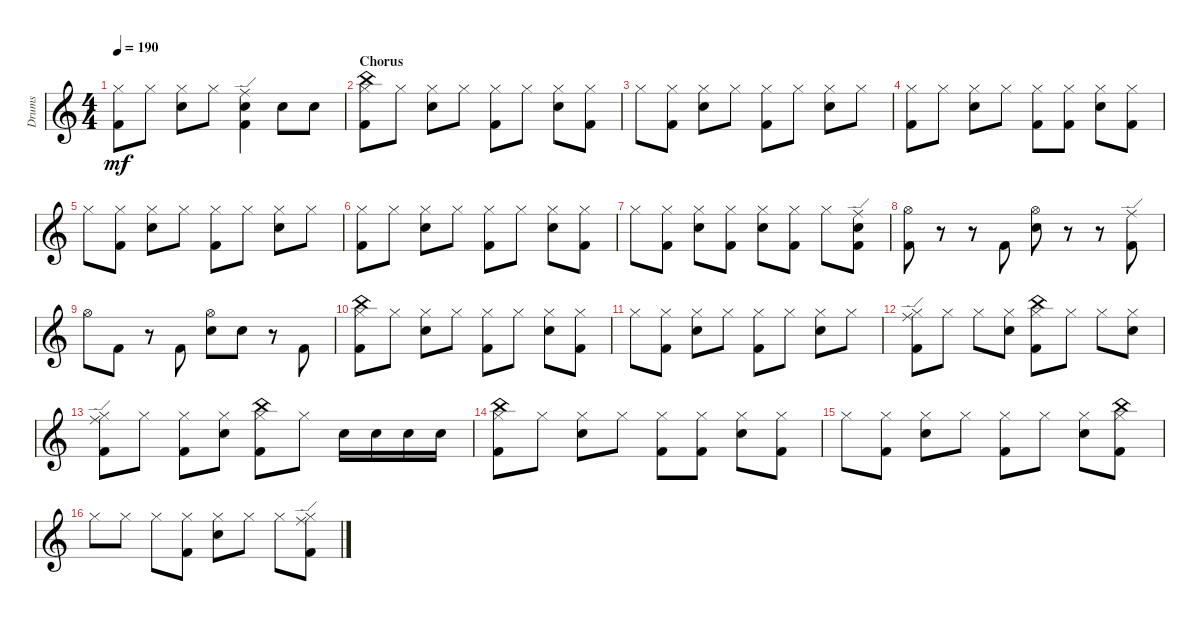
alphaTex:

\defaultSystemsLayout 4
\bracketExtendMode groupsimilarinstruments
\otherSystemsTrackNameOrientation horizontal
\track ("Prakarsh" "Drums") {instrument percussion}
\staff {score}
\articulation defaults
\ts (4 4)
\tempo 190
\clef g2
\ks c
("Hi-Hat (closed)" "Kick (hit) 2").8{dy mf beam Down} "Hi-Hat (closed)".8{beam Down} ("Hi-Hat (closed)" "Snare (hit) 2").8{beam Down} "Hi-Hat (closed)".8{beam Down} ("Kick (hit) 2" "Ride (edge)" "Snare (hit) 2").4{beam Down} "Snare (hit) 2".8{beam Down} "Snare (hit) 2".8{beam Down} |
\section ("" "Chorus")
("Hi-Hat (closed)" "Kick (hit) 2" "China (hit)").8{beam Down} "Hi-Hat (closed)".8{beam Down} ("Hi-Hat (closed)" "Snare (hit) 2").8{beam Down} "Hi-Hat (closed)".8{beam Down} ("Hi-Hat (closed)" "Kick (hit) 2").8{beam Down} "Hi-Hat (closed)".8{beam Down} ("Hi-Hat (closed)" "Snare (hit) 2").8{beam Down} ("Hi-Hat (closed)" "Kick (hit) 2").8{beam Down} |
"Hi-Hat (closed)".8{beam Down} ("Hi-Hat (closed)" "Kick (hit) 2").8{beam Down} ("Hi-Hat (closed)" "Snare (hit) 2").8{beam Down} "Hi-Hat (closed)".8{beam Down} ("Hi-Hat (closed)" "Kick (hit) 2").8{beam Down} "Hi-Hat (closed)".8{beam Down} ("Hi-Hat (closed)" "Snare (hit) 2").8{beam Down} "Hi-Hat (closed)".8{beam Down} |
("Hi-Hat (closed)" "Kick (hit) 2").8{beam Down} "Hi-Hat (closed)".8{beam Down} ("Hi-Hat (closed)" "Snare (hit) 2").8{beam Down} "Hi-Hat (closed)".8{beam Down} ("Hi-Hat (closed)" "Kick (hit) 2").8{beam Down} ("Hi-Hat (closed)" "Kick (hit) 2").8{beam Down} ("Hi-Hat (closed)" "Snare (hit) 2").8{beam Down} ("Hi-Hat (closed)" "Kick (hit) 2").8{beam Down} |
"Hi-Hat (closed)".8{beam Down} ("Hi-Hat (closed)" "Kick (hit) 2").8{beam Down} ("Hi-Hat (closed)" "Snare (hit) 2").8{beam Down} "Hi-Hat (closed)".8{beam Down} ("Hi-Hat (closed)" "Kick (hit) 2").8{beam Down} "Hi-Hat (closed)".8{beam Down} ("Hi-Hat (closed)" "Snare (hit) 2").8{beam Down} "Hi-Hat (closed)".8{beam Down} |
("Hi-Hat (closed)" "Kick (hit) 2").8{beam Down} "Hi-Hat (closed)".8{beam Down} ("Hi-Hat (closed)" "Snare (hit) 2").8{beam Down} "Hi-Hat (closed)".8{beam Down} ("Hi-Hat (closed)" "Kick (hit) 2").8{beam Down} "Hi-Hat (closed)".8{beam Down} ("Hi-Hat (closed)" "Snare (hit) 2").8{beam Down} ("Hi-Hat (closed)" "Kick (hit) 2").8{beam Down} |
"Hi-Hat (closed)".8{beam Down} ("Hi-Hat (closed)" "Kick (hit) 2").8{beam Down} ("Hi-Hat (closed)" "Snare (hit) 2").8{beam Down} ("Hi-Hat (closed)" "Kick (hit) 2").8{beam Down} ("Hi-Hat (closed)" "Snare (hit) 2").8{beam Down} ("Hi-Hat (closed)" "Kick (hit) 2").8{beam Down} "Hi-Hat (closed)".8{beam Down} ("Kick (hit) 2" "Snare (hit) 2" "Ride (edge)").8{beam Down} |
("Hi-Hat (open)" "Kick (hit) 2").8{beam Down} r.8{beam Down} r.8{beam Down} "Kick (hit) 2".8{beam Up} ("Hi-Hat (open)" "Snare (hit) 2").8{beam Down} r.8{beam Down} r.8{beam Down} ("Kick (hit) 2" "Ride (edge)").8{beam Down} |
"Hi-Hat (open)".8{beam Down} "Kick (hit) 2".8{beam Down} r.8{beam Down} "Kick (hit) 2".8{beam Up} ("Hi-Hat (open)" "Snare (hit) 2").8{beam Down} "Snare (hit) 2".8{beam Down} r.8{beam Down} "Kick (hit) 2".8{beam Up} |
("Hi-Hat (closed)" "Kick (hit) 2" "China (hit)").8{beam Down} "Hi-Hat (closed)".8{beam Down} ("Hi-Hat (closed)" "Snare (hit) 2").8{beam Down} "Hi-Hat (closed)".8{beam Down} ("Hi-Hat (closed)" "Kick (hit) 2").8{beam Down} "Hi-Hat (closed)".8{beam Down} ("Hi-Hat (closed)" "Snare (hit) 2").8{beam Down} ("Hi-Hat (closed)" "Kick (hit) 2").8{beam Down} |
"Hi-Hat (closed)".8{beam Down} ("Hi-Hat (closed)" "Kick (hit) 2").8{beam Down} ("Hi-Hat (closed)" "Snare (hit) 2").8{beam Down} "Hi-Hat (closed)".8{beam Down} ("Hi-Hat (closed)" "Kick (hit) 2").8{beam Down} "Hi-Hat (closed)".8{beam Down} ("Hi-Hat (closed)" "Snare (hit) 2").8{beam Down} "Hi-Hat (closed)".8{beam Down} |
("Hi-Hat (closed)" "Kick (hit) 2" "Ride (edge)").8{beam Down} "Hi-Hat (closed)".8{beam Down} "Hi-Hat (closed)".8{beam Down} ("Hi-Hat (closed)" "Snare (hit) 2").8{beam Down} ("Hi-Hat (closed)" "Kick (hit) 2" "China (hit)").8{beam Down} "Hi-Hat (closed)".8{beam Down} "Hi-Hat (closed)".8{beam Down} ("Hi-Hat (closed)" "Snare (hit) 2").8{beam Down} |
("Hi-Hat (closed)" "Kick (hit) 2" "Ride (edge)").8{beam Down} "Hi-Hat (closed)".8{beam Down} ("Hi-Hat (closed)" "Kick (hit) 2").8{beam Down} ("Hi-Hat (closed)" "Snare (hit) 2").8{beam Down} ("Hi-Hat (closed)" "Kick (hit) 2" "China (hit)").8{beam Down} "Hi-Hat (closed)".8{beam Down} "Snare (hit) 2".16{beam Down} "Snare (hit) 2".16{beam Down} "Snare (hit) 2".16{beam Down} "Snare (hit) 2".16{beam Down} |
("Hi-Hat (closed)" "Kick (hit) 2" "China (hit)").8{beam Down} "Hi-Hat (closed)".8{beam Down} ("Hi-Hat (closed)" "Snare (hit) 2").8{beam Down} "Hi-Hat (closed)".8{beam Down} ("Hi-Hat (closed)" "Kick (hit) 2").8{beam Down} ("Hi-Hat (closed)" "Kick (hit) 2").8{beam Down} ("Hi-Hat (closed)" "Snare (hit) 2").8{beam Down} ("Hi-Hat (closed)" "Kick (hit) 2").8{beam Down} |
"Hi-Hat (closed)".8{beam Down} ("Hi-Hat (closed)" "Kick (hit) 2").8{beam Down} ("Hi-Hat (closed)" "Snare (hit) 2").8{beam Down} "Hi-Hat (closed)".8{beam Down} ("Hi-Hat (closed)" "Kick (hit) 2").8{beam Down} "Hi-Hat (closed)".8{beam Down} ("Hi-Hat (closed)" "Snare (hit) 2").8{beam Down} ("Hi-Hat (closed)" "Kick (hit) 2" "China (hit)").8{beam Down} |
"Hi-Hat (closed)".8{beam Down} "Hi-Hat (closed)".8{beam Down} "Hi-Hat (closed)".8{beam Down} ("Hi-Hat (closed)" "Kick (hit) 2").8{beam Down} ("Hi-Hat (closed)" "Snare (hit) 2").8{beam Down} "Hi-Hat (closed)".8{beam Down} "Hi-Hat (closed)".8{beam Down} ("Kick (hit) 2" "Hi-Hat (closed)" "Ride (edge)").8{beam Down}
